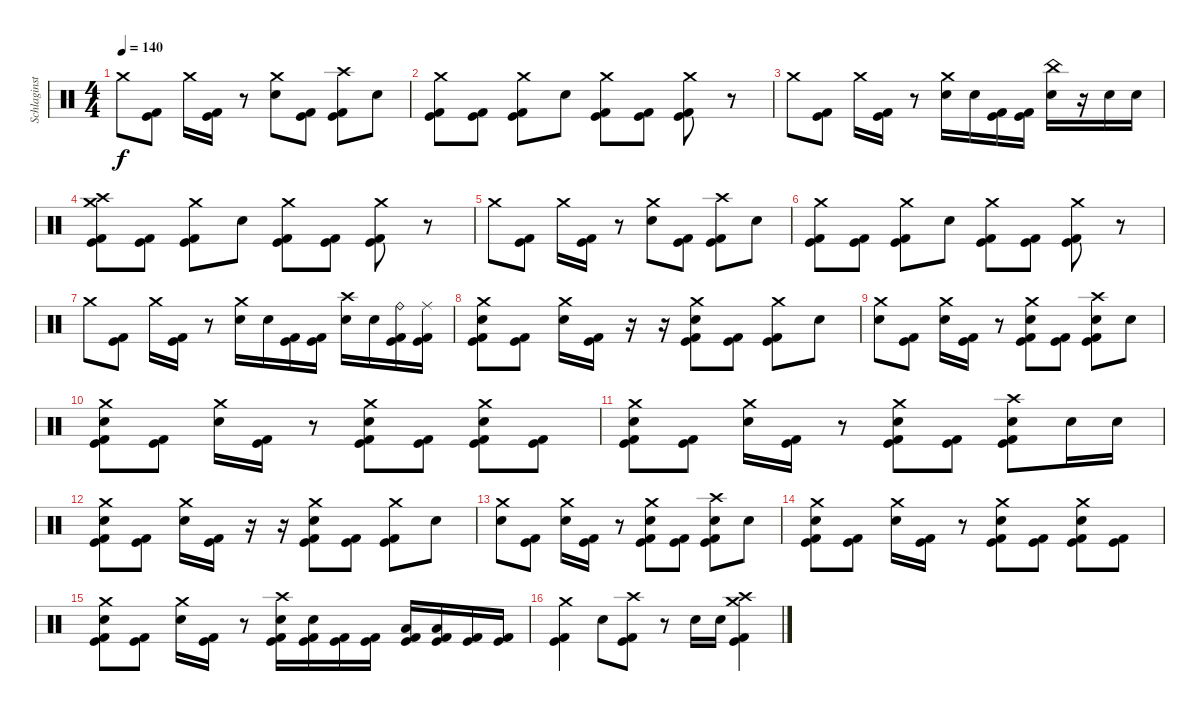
\track ("Schlaginstrumente - Auswahl" "Schlaginst") {instrument percussion}
\staff {score}
\articulation defaults
\ts (4 4)
\tempo 140
\clef neutral
\ks c "Crash medium (hit)".8{dy f}
("Kick (hit)" "Kick (hit) 2").8 "Crash medium (hit)".16 ("Kick (hit)" "Kick (hit) 2").16 r.8 ("Crash medium (hit)" "Electric Snare (hit)").8 ("Kick (hit)" "Kick (hit) 2").8 ("Crash high (hit)" "Kick (hit)" "Kick (hit) 2").8 "Electric Snare (hit)".8 |
("Crash medium (hit)" "Kick (hit)" "Kick (hit) 2").8 ("Kick (hit)" "Kick (hit) 2").8 ("Crash medium (hit)" "Kick (hit)" "Kick (hit) 2").8 "Electric Snare (hit)".8 ("Crash medium (hit)" "Kick (hit)" "Kick (hit) 2").8 ("Kick (hit)" "Kick (hit) 2").8 ("Crash medium (hit)" "Kick (hit)" "Kick (hit) 2").8 r.8 |
"Crash medium (hit)".8 ("Kick (hit)" "Kick (hit) 2").8 "Crash medium (hit)".16 ("Kick (hit)" "Kick (hit) 2").16 r.8 ("Crash medium (hit)" "Electric Snare (hit)").16 "Electric Snare (hit)".16 ("Kick (hit)" "Kick (hit) 2").16 ("Kick (hit)" "Kick (hit) 2").16 ("China (hit)" "Electric Snare (hit)").16 r.16 "Electric Snare (hit)".16 "Electric Snare (hit)".16 |
("Crash medium (hit)" "Crash high (hit)" "Kick (hit)" "Kick (hit) 2").8 ("Kick (hit)" "Kick (hit) 2").8 ("Crash medium (hit)" "Kick (hit)" "Kick (hit) 2").8 "Electric Snare (hit)".8 ("Crash medium (hit)" "Kick (hit)" "Kick (hit) 2").8 ("Kick (hit)" "Kick (hit) 2").8 ("Crash medium (hit)" "Kick (hit)" "Kick (hit) 2").8 r.8 |
"Crash medium (hit)".8 ("Kick (hit)" "Kick (hit) 2").8 "Crash medium (hit)".16 ("Kick (hit)" "Kick (hit) 2").16 r.8 ("Crash medium (hit)" "Electric Snare (hit)").8 ("Kick (hit)" "Kick (hit) 2").8 ("Crash high (hit)" "Kick (hit)" "Kick (hit) 2").8 "Electric Snare (hit)".8 |
("Crash medium (hit)" "Kick (hit)" "Kick (hit) 2").8 ("Kick (hit)" "Kick (hit) 2").8 ("Crash medium (hit)" "Kick (hit)" "Kick (hit) 2").8 "Electric Snare (hit)".8 ("Crash medium (hit)" "Kick (hit)" "Kick (hit) 2").8 ("Kick (hit)" "Kick (hit) 2").8 ("Crash medium (hit)" "Kick (hit)" "Kick (hit) 2").8 r.8 |
"Crash medium (hit)".8 ("Kick (hit)" "Kick (hit) 2").8 "Crash medium (hit)".16 ("Kick (hit)" "Kick (hit) 2").16 r.8 ("Crash medium (hit)" "Electric Snare (hit)").16 "Electric Snare (hit)".16 ("Kick (hit)" "Kick (hit) 2").16 ("Kick (hit)" "Kick (hit) 2").16 ("Crash high (hit)" "Electric Snare (hit)").16 "Electric Snare (hit)".16 ("Ride (bell)" "Kick (hit)" "Kick (hit) 2").16 ("Ride (middle)" "Kick (hit)" "Kick (hit) 2").16 |
("Crash medium (hit)" "Electric Snare (hit)" "Kick (hit)" "Kick (hit) 2").8 ("Kick (hit)" "Kick (hit) 2").8 ("Crash medium (hit)" "Electric Snare (hit)").16 ("Kick (hit)" "Kick (hit) 2").16 r.16 r.16 ("Crash medium (hit)" "Electric Snare (hit)" "Kick (hit)" "Kick (hit) 2").8 ("Kick (hit)" "Kick (hit) 2").8 ("Crash medium (hit)" "Kick (hit)" "Kick (hit) 2").8 "Electric Snare (hit)".8 |
("Crash medium (hit)" "Electric Snare (hit)").8 ("Kick (hit)" "Kick (hit) 2").8 ("Crash medium (hit)" "Electric Snare (hit)").16 ("Kick (hit)" "Kick (hit) 2").16 r.8 ("Crash medium (hit)" "Electric Snare (hit)" "Kick (hit)" "Kick (hit) 2").8 ("Kick (hit)" "Kick (hit) 2").8 ("Crash high (hit)" "Electric Snare (hit)" "Kick (hit)" "Kick (hit) 2").8 "Electric Snare (hit)".8 |
("Crash medium (hit)" "Electric Snare (hit)" "Kick (hit)" "Kick (hit) 2").8 ("Kick (hit)" "Kick (hit) 2").8 ("Crash medium (hit)" "Electric Snare (hit)").16 ("Kick (hit)" "Kick (hit) 2").16 r.8 ("Crash medium (hit)" "Electric Snare (hit)" "Kick (hit)" "Kick (hit) 2").8 ("Kick (hit)" "Kick (hit) 2").8 ("Crash medium (hit)" "Electric Snare (hit)" "Kick (hit)" "Kick (hit) 2").8 ("Kick (hit)" "Kick (hit) 2").8 |
("Crash medium (hit)" "Electric Snare (hit)" "Kick (hit)" "Kick (hit) 2").8 ("Kick (hit)" "Kick (hit) 2").8 ("Crash medium (hit)" "Electric Snare (hit)").16 ("Kick (hit)" "Kick (hit) 2").16 r.8 ("Crash medium (hit)" "Electric Snare (hit)" "Kick (hit)" "Kick (hit) 2").8 ("Kick (hit)" "Kick (hit) 2").8 ("Crash high (hit)" "Electric Snare (hit)" "Kick (hit)" "Kick (hit) 2").8 "Electric Snare (hit)".16 "Electric Snare (hit)".16 |
("Crash medium (hit)" "Electric Snare (hit)" "Kick (hit)" "Kick (hit) 2").8 ("Kick (hit)" "Kick (hit) 2").8 ("Crash medium (hit)" "Electric Snare (hit)").16 ("Kick (hit)" "Kick (hit) 2").16 r.16 r.16 ("Crash medium (hit)" "Electric Snare (hit)" "Kick (hit)" "Kick (hit) 2").8 ("Kick (hit)" "Kick (hit) 2").8 ("Crash medium (hit)" "Kick (hit)" "Kick (hit) 2").8 "Electric Snare (hit)".8 |
("Crash medium (hit)" "Electric Snare (hit)").8 ("Kick (hit)" "Kick (hit) 2").8 ("Crash medium (hit)" "Electric Snare (hit)").16 ("Kick (hit)" "Kick (hit) 2").16 r.8 ("Crash medium (hit)" "Electric Snare (hit)" "Kick (hit)" "Kick (hit) 2").8 ("Kick (hit)" "Kick (hit) 2").8 ("Crash high (hit)" "Electric Snare (hit)" "Kick (hit)" "Kick (hit) 2").8 "Electric Snare (hit)".8 |
("Crash medium (hit)" "Electric Snare (hit)" "Kick (hit)" "Kick (hit) 2").8 ("Kick (hit)" "Kick (hit) 2").8 ("Crash medium (hit)" "Electric Snare (hit)").16 ("Kick (hit)" "Kick (hit) 2").16 r.8 ("Crash medium (hit)" "Electric Snare (hit)" "Kick (hit)" "Kick (hit) 2").8 ("Kick (hit)" "Kick (hit) 2").8 ("Crash medium (hit)" "Electric Snare (hit)" "Kick (hit)" "Kick (hit) 2").8 ("Kick (hit)" "Kick (hit) 2").8 |
("Crash medium (hit)" "Electric Snare (hit)" "Kick (hit)" "Kick (hit) 2").8 ("Kick (hit)" "Kick (hit) 2").8 ("Crash medium (hit)" "Electric Snare (hit)").16 ("Kick (hit)" "Kick (hit) 2").16 r.8 ("Crash high (hit)" "Electric Snare (hit)" "Kick (hit)" "Kick (hit) 2").16 ("Electric Snare (hit)" "Kick (hit)" "Kick (hit) 2").16 ("Kick (hit)" "Kick (hit) 2").16 ("Kick (hit)" "Kick (hit) 2").16 ("Low Tom (hit)" "Kick (hit)" "Kick (hit) 2").16 ("Low Tom (hit)" "Kick (hit)" "Kick (hit) 2").16 ("Kick (hit)" "Kick (hit) 2").16 ("Kick (hit)" "Kick (hit) 2").16 |
("Crash medium (hit)" "Kick (hit)" "Kick (hit) 2").4 "Electric Snare (hit)".8 ("Crash high (hit)" "Kick (hit)" "Kick (hit) 2").8 r.8 "Electric Snare (hit)".16 "Electric Snare (hit)".16 ("Crash high (hit)" "Crash medium (hit)" "Kick (hit)" "Kick (hit) 2").4
